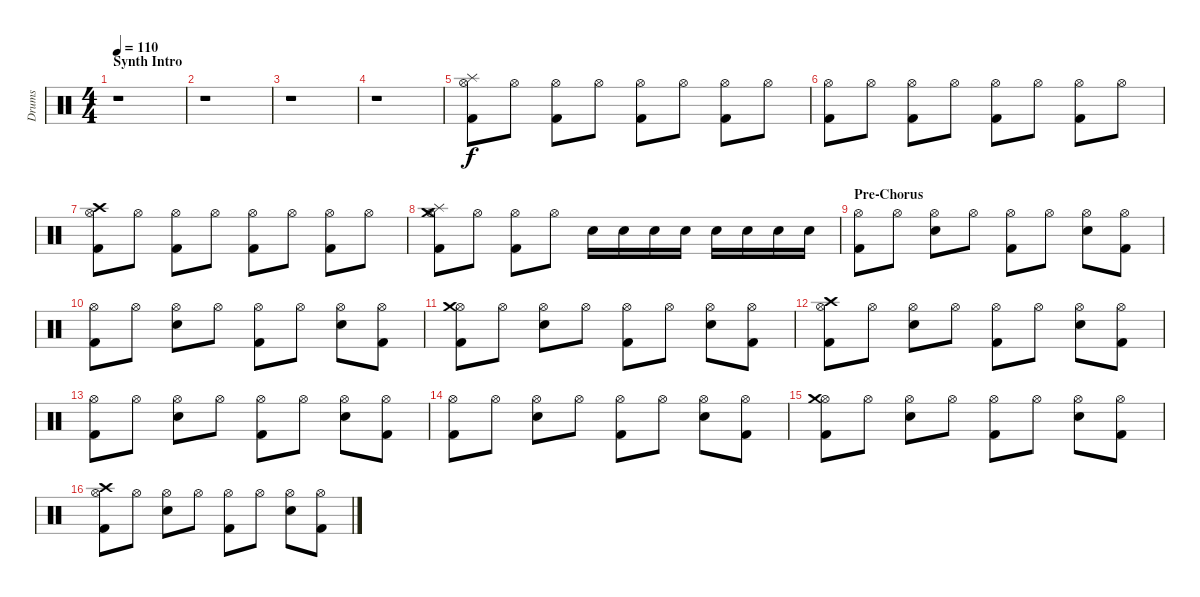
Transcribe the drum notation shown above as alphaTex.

\track ("Drums" "Drums") {instrument percussion}
\staff {score}
\articulation defaults
\ts (4 4)
\section ("" "Synth Intro")
\tempo 110
\clef neutral
\ks c
r.1{dy f} |
r.1 |
r.1 |
r.1 |
("Hi-Hat (open)" "Splash (hit)" "Kick (hit) 2").8 "Hi-Hat (open)".8 ("Hi-Hat (open)" "Kick (hit) 2").8 "Hi-Hat (open)".8 ("Hi-Hat (open)" "Kick (hit) 2").8 "Hi-Hat (open)".8 ("Hi-Hat (open)" "Kick (hit) 2").8 "Hi-Hat (open)".8 |
("Hi-Hat (open)" "Kick (hit) 2").8 "Hi-Hat (open)".8 ("Hi-Hat (open)" "Kick (hit) 2").8 "Hi-Hat (open)".8 ("Hi-Hat (open)" "Kick (hit) 2").8 "Hi-Hat (open)".8 ("Hi-Hat (open)" "Kick (hit) 2").8 "Hi-Hat (open)".8 |
("Hi-Hat (open)" "Crash high (hit)" "Kick (hit) 2").8 "Hi-Hat (open)".8 ("Hi-Hat (open)" "Kick (hit) 2").8 "Hi-Hat (open)".8 ("Hi-Hat (open)" "Kick (hit) 2").8 "Hi-Hat (open)".8 ("Hi-Hat (open)" "Kick (hit) 2").8 "Hi-Hat (open)".8 |
("Hi-Hat (open)" "Crash medium (hit)" "Splash (hit)" "Kick (hit) 2").8 "Hi-Hat (open)".8 ("Hi-Hat (open)" "Kick (hit) 2").8 "Hi-Hat (open)".8 "Snare (hit) 2".16 "Snare (hit) 2".16 "Snare (hit) 2".16 "Snare (hit) 2".16 "Snare (hit) 2".16 "Snare (hit) 2".16 "Snare (hit) 2".16 "Snare (hit) 2".16 |
\section ("" "Pre-Chorus")
("Hi-Hat (open)" "Kick (hit) 2").8 "Hi-Hat (open)".8 ("Hi-Hat (open)" "Snare (hit) 2").8 "Hi-Hat (open)".8 ("Hi-Hat (open)" "Kick (hit) 2").8 "Hi-Hat (open)".8 ("Hi-Hat (open)" "Snare (hit) 2").8 ("Hi-Hat (open)" "Kick (hit) 2").8 |
("Hi-Hat (open)" "Kick (hit) 2").8 "Hi-Hat (open)".8 ("Hi-Hat (open)" "Snare (hit) 2").8 "Hi-Hat (open)".8 ("Hi-Hat (open)" "Kick (hit) 2").8 "Hi-Hat (open)".8 ("Hi-Hat (open)" "Snare (hit) 2").8 ("Hi-Hat (open)" "Kick (hit) 2").8 |
("Hi-Hat (open)" "Crash medium (hit)" "Kick (hit) 2").8 "Hi-Hat (open)".8 ("Hi-Hat (open)" "Snare (hit) 2").8 "Hi-Hat (open)".8 ("Hi-Hat (open)" "Kick (hit) 2").8 "Hi-Hat (open)".8 ("Hi-Hat (open)" "Snare (hit) 2").8 ("Hi-Hat (open)" "Kick (hit) 2").8 |
("Hi-Hat (open)" "Crash high (hit)" "Kick (hit) 2").8 "Hi-Hat (open)".8 ("Hi-Hat (open)" "Snare (hit) 2").8 "Hi-Hat (open)".8 ("Hi-Hat (open)" "Kick (hit) 2").8 "Hi-Hat (open)".8 ("Hi-Hat (open)" "Snare (hit) 2").8 ("Hi-Hat (open)" "Kick (hit) 2").8 |
("Hi-Hat (open)" "Kick (hit) 2").8 "Hi-Hat (open)".8 ("Hi-Hat (open)" "Snare (hit) 2").8 "Hi-Hat (open)".8 ("Hi-Hat (open)" "Kick (hit) 2").8 "Hi-Hat (open)".8 ("Hi-Hat (open)" "Snare (hit) 2").8 ("Hi-Hat (open)" "Kick (hit) 2").8 |
("Hi-Hat (open)" "Kick (hit) 2").8 "Hi-Hat (open)".8 ("Hi-Hat (open)" "Snare (hit) 2").8 "Hi-Hat (open)".8 ("Hi-Hat (open)" "Kick (hit) 2").8 "Hi-Hat (open)".8 ("Hi-Hat (open)" "Snare (hit) 2").8 ("Hi-Hat (open)" "Kick (hit) 2").8 |
("Hi-Hat (open)" "Crash medium (hit)" "Kick (hit) 2").8 "Hi-Hat (open)".8 ("Hi-Hat (open)" "Snare (hit) 2").8 "Hi-Hat (open)".8 ("Hi-Hat (open)" "Kick (hit) 2").8 "Hi-Hat (open)".8 ("Hi-Hat (open)" "Snare (hit) 2").8 ("Hi-Hat (open)" "Kick (hit) 2").8 |
("Hi-Hat (open)" "Crash high (hit)" "Kick (hit) 2").8 "Hi-Hat (open)".8 ("Hi-Hat (open)" "Snare (hit) 2").8 "Hi-Hat (open)".8 ("Hi-Hat (open)" "Kick (hit) 2").8 "Hi-Hat (open)".8 ("Hi-Hat (open)" "Snare (hit) 2").8 ("Hi-Hat (open)" "Kick (hit) 2").8
